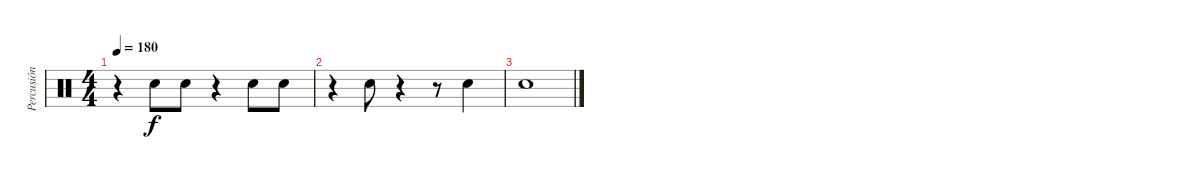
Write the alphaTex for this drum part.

\track ("Percusión" "Percusión") {instrument percussion}
\staff {score}
\articulation defaults
\ts (4 4)
\tempo 180
\clef neutral
\ks c
r.4{dy f} "Hand Clap (hit)".8 "Hand Clap (hit)".8 r.4 "Hand Clap (hit)".8 "Hand Clap (hit)".8 |
r.4 "Hand Clap (hit)".8 r.4 r.8 "Hand Clap (hit)".4 |
"Hand Clap (hit)".1
